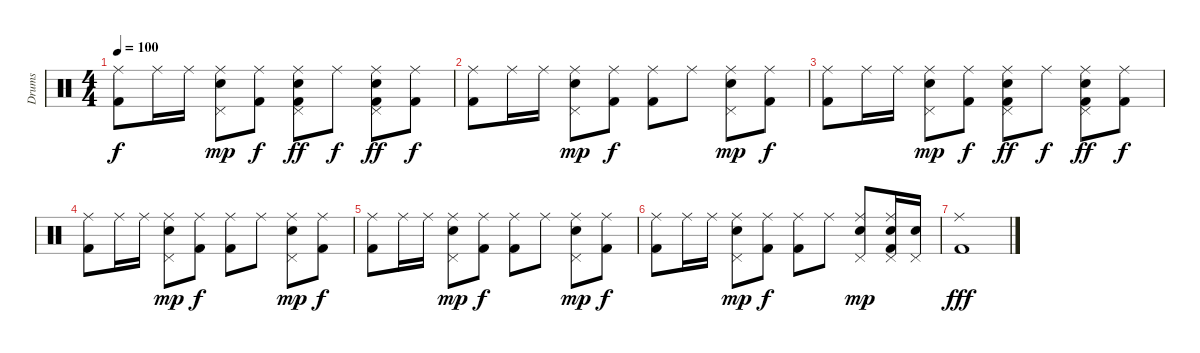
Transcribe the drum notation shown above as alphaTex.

\track ("Drums" "Drums") {instrument percussion}
\staff {score}
\articulation defaults
\ts (4 4)
\tempo 100
\clef neutral
\ks c
("Ride (middle)" "Kick (hit) 2").8{dy f} "Ride (middle)".16 "Ride (middle)".16 ("Ride (middle)" "Pedal Hi-Hat (hit)" "Electric Snare (hit)").8{dy mp} ("Ride (middle)" "Kick (hit) 2").8{dy f} ("Ride (middle)" "Pedal Hi-Hat (hit)" "Electric Snare (hit)" "Kick (hit) 2").8{dy ff} "Ride (middle)".8{dy f} ("Ride (middle)" "Pedal Hi-Hat (hit)" "Electric Snare (hit)" "Kick (hit) 2").8{dy ff} ("Ride (middle)" "Kick (hit) 2").8{dy f} |
("Ride (middle)" "Kick (hit) 2").8 "Ride (middle)".16 "Ride (middle)".16 ("Ride (middle)" "Pedal Hi-Hat (hit)" "Electric Snare (hit)").8{dy mp} ("Ride (middle)" "Kick (hit) 2").8{dy f} ("Ride (middle)" "Kick (hit) 2").8 "Ride (middle)".8 ("Ride (middle)" "Pedal Hi-Hat (hit)" "Electric Snare (hit)").8{dy mp} ("Ride (middle)" "Kick (hit) 2").8{dy f} |
("Ride (middle)" "Kick (hit) 2").8 "Ride (middle)".16 "Ride (middle)".16 ("Ride (middle)" "Pedal Hi-Hat (hit)" "Electric Snare (hit)").8{dy mp} ("Ride (middle)" "Kick (hit) 2").8{dy f} ("Ride (middle)" "Pedal Hi-Hat (hit)" "Electric Snare (hit)" "Kick (hit) 2").8{dy ff} "Ride (middle)".8{dy f} ("Ride (middle)" "Pedal Hi-Hat (hit)" "Electric Snare (hit)" "Kick (hit) 2").8{dy ff} ("Ride (middle)" "Kick (hit) 2").8{dy f} |
("Ride (middle)" "Kick (hit) 2").8 "Ride (middle)".16 "Ride (middle)".16 ("Ride (middle)" "Pedal Hi-Hat (hit)" "Electric Snare (hit)").8{dy mp} ("Ride (middle)" "Kick (hit) 2").8{dy f} ("Ride (middle)" "Kick (hit) 2").8 "Ride (middle)".8 ("Ride (middle)" "Pedal Hi-Hat (hit)" "Electric Snare (hit)").8{dy mp} ("Ride (middle)" "Kick (hit) 2").8{dy f} |
("Ride (middle)" "Kick (hit) 2").8 "Ride (middle)".16 "Ride (middle)".16 ("Ride (middle)" "Pedal Hi-Hat (hit)" "Electric Snare (hit)").8{dy mp} ("Ride (middle)" "Kick (hit) 2").8{dy f} ("Ride (middle)" "Kick (hit) 2").8 "Ride (middle)".8 ("Ride (middle)" "Pedal Hi-Hat (hit)" "Electric Snare (hit)").8{dy mp} ("Ride (middle)" "Kick (hit) 2").8{dy f} |
("Ride (middle)" "Kick (hit) 2").8 "Ride (middle)".16 "Ride (middle)".16 ("Ride (middle)" "Pedal Hi-Hat (hit)" "Electric Snare (hit)").8{dy mp} ("Ride (middle)" "Kick (hit) 2").8{dy f} ("Ride (middle)" "Kick (hit) 2").8 "Ride (middle)".8 ("Ride (middle)" "Pedal Hi-Hat (hit)" "Electric Snare (hit)").8{dy mp} ("Ride (middle)" "Pedal Hi-Hat (hit)" "Electric Snare (hit)" "Kick (hit) 2").16 ("Pedal Hi-Hat (hit)" "Electric Snare (hit)").16 |
("Ride (middle)" "Kick (hit) 2").1{dy fff}
